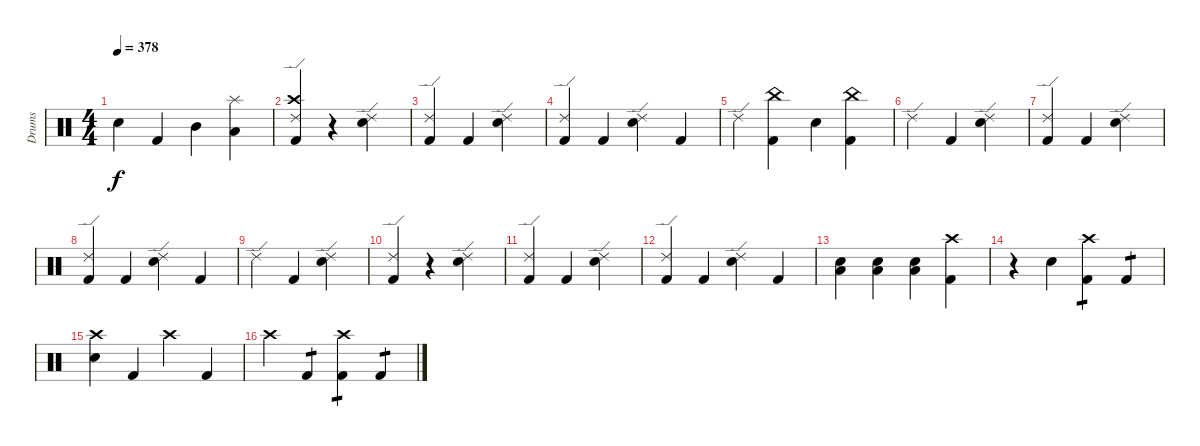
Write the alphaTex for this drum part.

\track ("Drums" "Drums") {instrument percussion}
\staff {score}
\articulation defaults
\ts (4 4)
\tempo 378
\clef neutral
\ks c "Electric Snare (hit)".4{dy f} "Kick (hit) 2".4 "Mid Tom (hit)".4
("Splash (hit)" "Low Tom (hit)").4 |
("Crash high (hit)" "Ride (edge) 2" "Kick (hit) 2").4 r.4 ("Ride (edge) 2" "Electric Snare (hit)").4 |
("Ride (edge) 2" "Kick (hit) 2").4 "Kick (hit) 2".4 ("Ride (edge) 2" "Electric Snare (hit)").4 |
("Ride (edge) 2" "Kick (hit) 2").4 "Kick (hit) 2".4 ("Ride (edge) 2" "Electric Snare (hit)").4 "Kick (hit) 2".4 |
"Ride (edge) 2".4 ("China (hit)" "Kick (hit) 2").4 "Electric Snare (hit)".4 ("China (hit)" "Kick (hit) 2").4 |
"Ride (edge) 2".4 "Kick (hit) 2".4 ("Ride (edge) 2" "Electric Snare (hit)").4 |
("Ride (edge) 2" "Kick (hit) 2").4 "Kick (hit) 2".4 ("Ride (edge) 2" "Electric Snare (hit)").4 |
("Ride (edge) 2" "Kick (hit) 2").4 "Kick (hit) 2".4 ("Ride (edge) 2" "Electric Snare (hit)").4 "Kick (hit) 2".4 |
"Ride (edge) 2".4 "Kick (hit) 2".4 ("Ride (edge) 2" "Electric Snare (hit)").4 |
("Ride (edge) 2" "Kick (hit) 2").4 r.4 ("Ride (edge) 2" "Electric Snare (hit)").4 |
("Ride (edge) 2" "Kick (hit) 2").4 "Kick (hit) 2".4 ("Ride (edge) 2" "Electric Snare (hit)").4 |
("Ride (edge) 2" "Kick (hit) 2").4 "Kick (hit) 2".4 ("Ride (edge) 2" "Electric Snare (hit)").4 "Kick (hit) 2".4 |
("Low Floor Tom (hit)" "Electric Snare (hit)").4 ("Low Floor Tom (hit)" "Electric Snare (hit)").4 ("Low Floor Tom (hit)" "Electric Snare (hit)").4 ("Crash high (hit)" "Kick (hit) 2").4 |
r.4 "Electric Snare (hit)".4 ("Crash high (hit)" "Kick (hit) 2").4{tp 1} "Kick (hit) 2".4{tp 1} |
("Crash high (hit)" "Electric Snare (hit)").4 "Kick (hit) 2".4 "Crash high (hit)".4 "Kick (hit) 2".4 |
"Crash high (hit)".4 "Kick (hit) 2".4{tp 1} ("Crash high (hit)" "Kick (hit) 2").4{tp 1} "Kick (hit) 2".4{tp 1}
